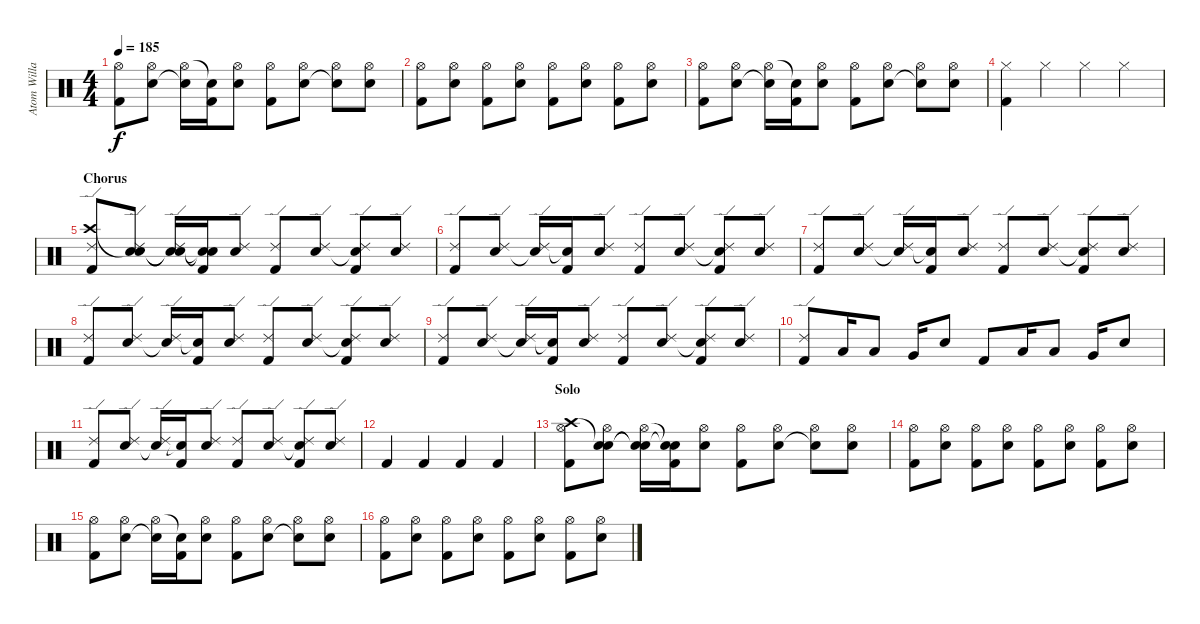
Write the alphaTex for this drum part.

\track ("Atom Willard (Drums)" "Atom Willa") {instrument percussion}
\staff {score}
\articulation defaults
\ts (4 4)
\tempo 185
\clef neutral
\ks c
("Hi-Hat (open)" "Kick (hit) 2").8{dy f} ("Hi-Hat (open)" "Snare (hit) 2").8 ("Hi-Hat (open)" "Snare (hit)"{t}).16 ("Snare (hit)"{t} "Kick (hit) 2").16 ("Hi-Hat (open)" "Snare (hit) 2").8 ("Hi-Hat (open)" "Kick (hit) 2").8 ("Hi-Hat (open)" "Snare (hit) 2").8 ("Hi-Hat (open)" "Snare (hit)"{t}).8 ("Hi-Hat (open)" "Snare (hit) 2").8 |
("Hi-Hat (open)" "Kick (hit) 2").8 ("Hi-Hat (open)" "Snare (hit) 2").8 ("Hi-Hat (open)" "Kick (hit) 2").8 ("Hi-Hat (open)" "Snare (hit) 2").8 ("Hi-Hat (open)" "Kick (hit) 2").8 ("Hi-Hat (open)" "Snare (hit) 2").8 ("Hi-Hat (open)" "Kick (hit) 2").8 ("Hi-Hat (open)" "Snare (hit) 2").8 |
("Hi-Hat (open)" "Kick (hit) 2").8 ("Hi-Hat (open)" "Snare (hit) 2").8 ("Hi-Hat (open)" "Snare (hit)"{t}).16 ("Snare (hit)"{t} "Kick (hit) 2").16 ("Hi-Hat (open)" "Snare (hit) 2").8 ("Hi-Hat (open)" "Kick (hit) 2").8 ("Hi-Hat (open)" "Snare (hit) 2").8 ("Hi-Hat (open)" "Snare (hit)"{t}).8 ("Hi-Hat (open)" "Snare (hit) 2").8 |
("Hi-Hat (closed)" "Kick (hit) 2").4 "Hi-Hat (closed)".4 "Hi-Hat (closed)".4 "Hi-Hat (closed)".4 |
\section ("" "Chorus")
("Crash high (hit)" "Ride (edge) 2" "Kick (hit) 2").8 ("Snare (hit)"{t} "Ride (edge) 2" "Snare (hit) 2").8 ("Snare (hit)"{t} "Ride (edge) 2" "Snare (hit)"{t}).16 ("Snare (hit)"{t} "Snare (hit)"{t} "Kick (hit) 2").16 ("Ride (edge) 2" "Snare (hit) 2").8 ("Ride (edge) 2" "Kick (hit) 2").8 ("Ride (edge) 2" "Snare (hit) 2").8 ("Ride (edge) 2" "Snare (hit)"{t} "Kick (hit) 2").8 ("Ride (edge) 2" "Snare (hit) 2").8 |
("Ride (edge) 2" "Kick (hit) 2").8 ("Ride (edge) 2" "Snare (hit) 2").8 ("Ride (edge) 2" "Snare (hit)"{t}).16 ("Snare (hit)"{t} "Kick (hit) 2").16 ("Ride (edge) 2" "Snare (hit) 2").8 ("Ride (edge) 2" "Kick (hit) 2").8 ("Ride (edge) 2" "Snare (hit) 2").8 ("Ride (edge) 2" "Snare (hit)"{t} "Kick (hit) 2").8 ("Ride (edge) 2" "Snare (hit) 2").8 |
("Ride (edge) 2" "Kick (hit) 2").8 ("Ride (edge) 2" "Snare (hit) 2").8 ("Ride (edge) 2" "Snare (hit)"{t}).16 ("Snare (hit)"{t} "Kick (hit) 2").16 ("Ride (edge) 2" "Snare (hit) 2").8 ("Ride (edge) 2" "Kick (hit) 2").8 ("Ride (edge) 2" "Snare (hit) 2").8 ("Ride (edge) 2" "Snare (hit)"{t} "Kick (hit) 2").8 ("Ride (edge) 2" "Snare (hit) 2").8 |
("Ride (edge) 2" "Kick (hit) 2").8 ("Ride (edge) 2" "Snare (hit) 2").8 ("Ride (edge) 2" "Snare (hit)"{t}).16 ("Snare (hit)"{t} "Kick (hit) 2").16 ("Ride (edge) 2" "Snare (hit) 2").8 ("Ride (edge) 2" "Kick (hit) 2").8 ("Ride (edge) 2" "Snare (hit) 2").8 ("Ride (edge) 2" "Snare (hit)"{t} "Kick (hit) 2").8 ("Ride (edge) 2" "Snare (hit) 2").8 |
("Ride (edge) 2" "Kick (hit) 2").8 ("Ride (edge) 2" "Snare (hit) 2").8 ("Ride (edge) 2" "Snare (hit)"{t}).16 ("Snare (hit)"{t} "Kick (hit) 2").16 ("Ride (edge) 2" "Snare (hit) 2").8 ("Ride (edge) 2" "Kick (hit) 2").8 ("Ride (edge) 2" "Snare (hit) 2").8 ("Ride (edge) 2" "Snare (hit)"{t} "Kick (hit) 2").8 ("Ride (edge) 2" "Snare (hit) 2").8 |
("Ride (edge) 2" "Kick (hit) 2").8 "Low Tom (hit)".16 "Low Tom (hit)".8 "Very Low Tom (hit)".16 "Electric Snare (hit)".8 "Kick (hit) 2".8 "Low Tom (hit)".16 "Low Tom (hit)".8 "Very Low Tom (hit)".16 "Electric Snare (hit)".8 |
("Ride (edge) 2" "Kick (hit) 2").8 ("Ride (edge) 2" "Snare (hit) 2").8 ("Ride (edge) 2" "Snare (hit)"{t}).16 ("Snare (hit)"{t} "Kick (hit) 2").16 ("Ride (edge) 2" "Snare (hit) 2").8 ("Ride (edge) 2" "Kick (hit) 2").8 ("Ride (edge) 2" "Snare (hit) 2").8 ("Ride (edge) 2" "Snare (hit)"{t} "Kick (hit) 2").8 ("Ride (edge) 2" "Snare (hit) 2").8 |
"Kick (hit) 2".4 "Kick (hit) 2".4 "Kick (hit) 2".4 "Kick (hit) 2".4 |
\section ("" "Solo")
("Crash high (hit)" "Hi-Hat (open)" "Kick (hit) 2").8 ("Snare (hit)"{t} "Hi-Hat (open)" "Snare (hit) 2").8 ("Snare (hit)"{t} "Hi-Hat (open)" "Snare (hit)"{t}).16 ("Snare (hit)"{t} "Snare (hit)"{t} "Kick (hit) 2").16 ("Hi-Hat (open)" "Snare (hit) 2").8 ("Hi-Hat (open)" "Kick (hit) 2").8 ("Hi-Hat (open)" "Snare (hit) 2").8 ("Hi-Hat (open)" "Snare (hit)"{t}).8 ("Hi-Hat (open)" "Snare (hit) 2").8 |
("Hi-Hat (open)" "Kick (hit) 2").8 ("Hi-Hat (open)" "Snare (hit) 2").8 ("Hi-Hat (open)" "Kick (hit) 2").8 ("Hi-Hat (open)" "Snare (hit) 2").8 ("Hi-Hat (open)" "Kick (hit) 2").8 ("Hi-Hat (open)" "Snare (hit) 2").8 ("Hi-Hat (open)" "Kick (hit) 2").8 ("Hi-Hat (open)" "Snare (hit) 2").8 |
("Hi-Hat (open)" "Kick (hit) 2").8 ("Hi-Hat (open)" "Snare (hit) 2").8 ("Hi-Hat (open)" "Snare (hit)"{t}).16 ("Snare (hit)"{t} "Kick (hit) 2").16 ("Hi-Hat (open)" "Snare (hit) 2").8 ("Hi-Hat (open)" "Kick (hit) 2").8 ("Hi-Hat (open)" "Snare (hit) 2").8 ("Hi-Hat (open)" "Snare (hit)"{t}).8 ("Hi-Hat (open)" "Snare (hit) 2").8 |
("Hi-Hat (open)" "Kick (hit) 2").8 ("Hi-Hat (open)" "Snare (hit) 2").8 ("Hi-Hat (open)" "Kick (hit) 2").8 ("Hi-Hat (open)" "Snare (hit) 2").8 ("Hi-Hat (open)" "Kick (hit) 2").8 ("Hi-Hat (open)" "Snare (hit) 2").8 ("Hi-Hat (open)" "Kick (hit) 2").8 ("Hi-Hat (open)" "Snare (hit) 2").8
